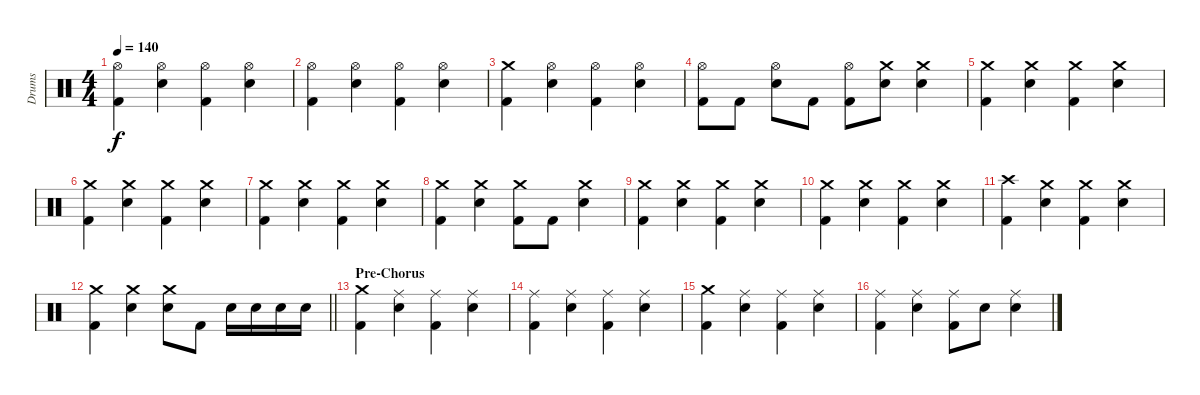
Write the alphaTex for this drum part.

\track ("Drums" "Drums") {instrument percussion}
\staff {score}
\articulation defaults
\ts (4 4)
\tempo 140
\clef neutral
\ks c
("Hi-Hat (open)" "Kick (hit) 2").4{dy f} ("Hi-Hat (open)" "Snare (hit) 2").4 ("Hi-Hat (open)" "Kick (hit) 2").4 ("Hi-Hat (open)" "Snare (hit) 2").4 |
("Hi-Hat (open)" "Kick (hit) 2").4 ("Hi-Hat (open)" "Snare (hit) 2").4 ("Hi-Hat (open)" "Kick (hit) 2").4 ("Hi-Hat (open)" "Snare (hit) 2").4 |
("Crash medium (hit)" "Kick (hit) 2").4 ("Hi-Hat (open)" "Snare (hit) 2").4 ("Hi-Hat (open)" "Kick (hit) 2").4 ("Hi-Hat (open)" "Snare (hit) 2").4 |
("Hi-Hat (open)" "Kick (hit) 2").8 "Kick (hit) 2".8 ("Hi-Hat (open)" "Snare (hit) 2").8 "Kick (hit) 2".8 ("Hi-Hat (open)" "Kick (hit) 2").8 ("Crash medium (hit)" "Snare (hit) 2").8 ("Crash medium (hit)" "Snare (hit) 2").4 |
("Crash medium (hit)" "Kick (hit) 2").4 ("Crash medium (hit)" "Snare (hit) 2").4 ("Crash medium (hit)" "Kick (hit) 2").4 ("Crash medium (hit)" "Snare (hit) 2").4 |
("Crash medium (hit)" "Kick (hit) 2").4 ("Crash medium (hit)" "Snare (hit) 2").4 ("Crash medium (hit)" "Kick (hit) 2").4 ("Crash medium (hit)" "Snare (hit) 2").4 |
("Crash medium (hit)" "Kick (hit) 2").4 ("Crash medium (hit)" "Snare (hit) 2").4 ("Crash medium (hit)" "Kick (hit) 2").4 ("Crash medium (hit)" "Snare (hit) 2").4 |
("Crash medium (hit)" "Kick (hit) 2").4 ("Crash medium (hit)" "Snare (hit) 2").4 ("Crash medium (hit)" "Kick (hit) 2").8 "Kick (hit) 2".8 ("Crash medium (hit)" "Snare (hit) 2").4 |
("Crash medium (hit)" "Kick (hit) 2").4 ("Crash medium (hit)" "Snare (hit) 2").4 ("Crash medium (hit)" "Kick (hit) 2").4 ("Crash medium (hit)" "Snare (hit) 2").4 |
("Crash medium (hit)" "Kick (hit) 2").4 ("Crash medium (hit)" "Snare (hit) 2").4 ("Crash medium (hit)" "Kick (hit) 2").4 ("Crash medium (hit)" "Snare (hit) 2").4 |
("Crash high (hit)" "Kick (hit) 2").4 ("Crash medium (hit)" "Snare (hit) 2").4 ("Crash medium (hit)" "Kick (hit) 2").4 ("Crash medium (hit)" "Snare (hit) 2").4 |
\barLineRight lightlight
("Crash medium (hit)" "Kick (hit) 2").4 ("Crash medium (hit)" "Snare (hit) 2").4 ("Crash medium (hit)" "Snare (hit) 2").8 "Kick (hit) 2".8 "Snare (hit) 2".16 "Snare (hit) 2".16 "Snare (hit) 2".16 "Snare (hit) 2".16 |
\section ("" "Pre-Chorus")
("Crash medium (hit)" "Kick (hit) 2").4 ("Ride (middle)" "Snare (hit) 2").4 ("Ride (middle)" "Kick (hit) 2").4 ("Ride (middle)" "Snare (hit) 2").4 |
("Ride (middle)" "Kick (hit) 2").4 ("Ride (middle)" "Snare (hit) 2").4 ("Ride (middle)" "Kick (hit) 2").4 ("Ride (middle)" "Snare (hit) 2").4 |
("Crash medium (hit)" "Kick (hit) 2").4 ("Ride (middle)" "Snare (hit) 2").4 ("Ride (middle)" "Kick (hit) 2").4 ("Ride (middle)" "Snare (hit) 2").4 |
("Ride (middle)" "Kick (hit) 2").4 ("Ride (middle)" "Snare (hit) 2").4 ("Ride (middle)" "Kick (hit) 2").8 "Snare (hit) 2".8 ("Ride (middle)" "Snare (hit) 2").4
